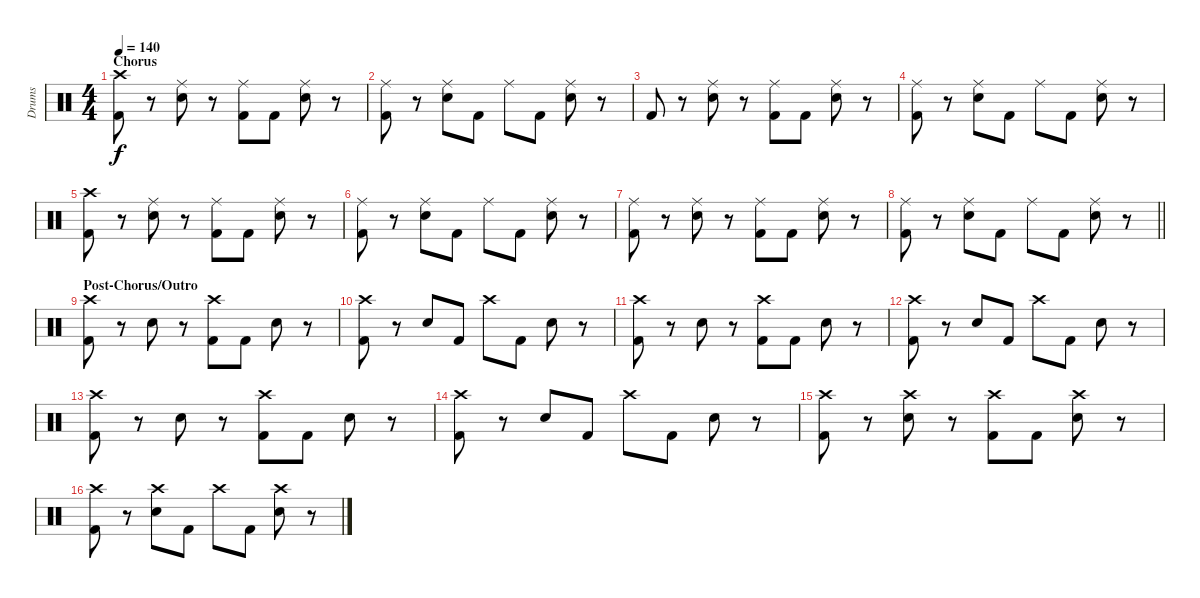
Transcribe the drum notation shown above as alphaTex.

\track ("Drums" "Drums") {instrument percussion}
\staff {score}
\articulation defaults
\ts (4 4)
\section ("" "Chorus")
\tempo 140
\clef neutral
\ks c
("Crash high (hit)" "Kick (hit) 2").8{dy f} r.8 ("Ride (middle)" "Snare (hit) 2").8 r.8 ("Ride (middle)" "Kick (hit) 2").8 "Kick (hit) 2".8 ("Ride (middle)" "Snare (hit) 2").8 r.8 |
("Ride (middle)" "Kick (hit) 2").8 r.8 ("Ride (middle)" "Snare (hit) 2").8 "Kick (hit) 2".8 "Ride (middle)".8 "Kick (hit) 2".8 ("Ride (middle)" "Snare (hit) 2").8 r.8 |
"Kick (hit) 2".8 r.8 ("Ride (middle)" "Snare (hit) 2").8 r.8 ("Ride (middle)" "Kick (hit) 2").8 "Kick (hit) 2".8 ("Ride (middle)" "Snare (hit) 2").8 r.8 |
("Ride (middle)" "Kick (hit) 2").8 r.8 ("Ride (middle)" "Snare (hit) 2").8 "Kick (hit) 2".8 "Ride (middle)".8 "Kick (hit) 2".8 ("Ride (middle)" "Snare (hit) 2").8 r.8 |
("Crash high (hit)" "Kick (hit) 2").8 r.8 ("Ride (middle)" "Snare (hit) 2").8 r.8 ("Ride (middle)" "Kick (hit) 2").8 "Kick (hit) 2".8 ("Ride (middle)" "Snare (hit) 2").8 r.8 |
("Ride (middle)" "Kick (hit) 2").8 r.8 ("Ride (middle)" "Snare (hit) 2").8 "Kick (hit) 2".8 "Ride (middle)".8 "Kick (hit) 2".8 ("Ride (middle)" "Snare (hit) 2").8 r.8 |
("Ride (middle)" "Kick (hit) 2").8 r.8 ("Ride (middle)" "Snare (hit) 2").8 r.8 ("Ride (middle)" "Kick (hit) 2").8 "Kick (hit) 2".8 ("Ride (middle)" "Snare (hit) 2").8 r.8 |
\barLineRight lightlight
("Ride (middle)" "Kick (hit) 2").8 r.8 ("Ride (middle)" "Snare (hit) 2").8 "Kick (hit) 2".8 "Ride (middle)".8 "Kick (hit) 2".8 ("Ride (middle)" "Snare (hit) 2").8 r.8 |
\section ("" "Post-Chorus/Outro")
("Crash high (hit)" "Kick (hit) 2").8 r.8 "Snare (hit) 2".8 r.8 ("Crash high (hit)" "Kick (hit) 2").8 "Kick (hit) 2".8 "Snare (hit) 2".8 r.8 |
("Crash high (hit)" "Kick (hit) 2").8 r.8 "Snare (hit) 2".8 "Kick (hit) 2".8 "Crash high (hit)".8 "Kick (hit) 2".8 "Snare (hit) 2".8 r.8 |
("Crash high (hit)" "Kick (hit) 2").8 r.8 "Snare (hit) 2".8 r.8 ("Crash high (hit)" "Kick (hit) 2").8 "Kick (hit) 2".8 "Snare (hit) 2".8 r.8 |
("Crash high (hit)" "Kick (hit) 2").8 r.8 "Snare (hit) 2".8 "Kick (hit) 2".8 "Crash high (hit)".8 "Kick (hit) 2".8 "Snare (hit) 2".8 r.8 |
("Crash high (hit)" "Kick (hit) 2").8 r.8 "Snare (hit) 2".8 r.8 ("Crash high (hit)" "Kick (hit) 2").8 "Kick (hit) 2".8 "Snare (hit) 2".8 r.8 |
("Crash high (hit)" "Kick (hit) 2").8 r.8 "Snare (hit) 2".8 "Kick (hit) 2".8 "Crash high (hit)".8 "Kick (hit) 2".8 "Snare (hit) 2".8 r.8 |
("Crash high (hit)" "Kick (hit) 2").8 r.8 ("Crash high (hit)" "Snare (hit) 2").8 r.8 ("Crash high (hit)" "Kick (hit) 2").8 "Kick (hit) 2".8 ("Crash high (hit)" "Snare (hit) 2").8 r.8 |
("Crash high (hit)" "Kick (hit) 2").8 r.8 ("Crash high (hit)" "Snare (hit) 2").8 "Kick (hit) 2".8 "Crash high (hit)".8 "Kick (hit) 2".8 ("Crash high (hit)" "Snare (hit) 2").8 r.8
